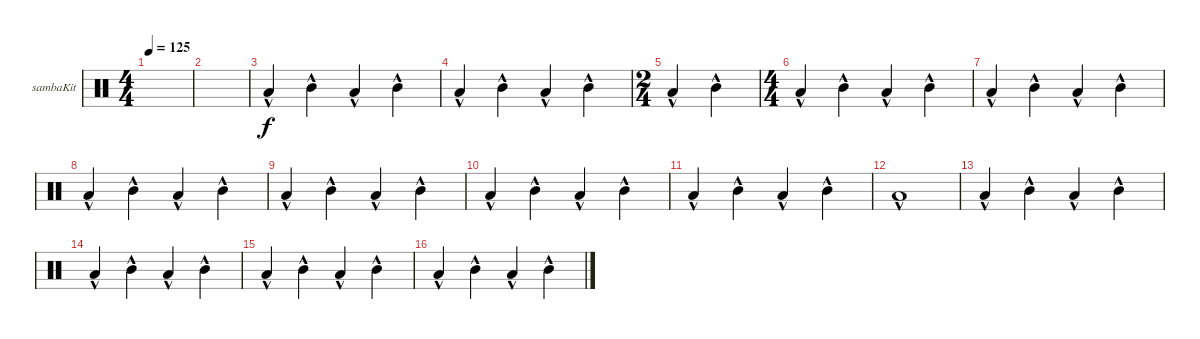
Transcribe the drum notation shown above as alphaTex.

\defaultSystemsLayout 4
\bracketExtendMode groupsimilarinstruments
\firstSystemTrackNameOrientation horizontal
\otherSystemsTrackNameOrientation horizontal
\track ("Kit-Samba" "sambaKit") {instrument percussion}
\staff {score}
\articulation defaults
\ts (4 4)
\tempo 125
\clef neutral
\scale
0.333333
\ks c
|
\scale
0.333333 |
\scale
0.262911 "Low Tom (hit)"{hac}.4 "Mid Tom (hit)"{hac}.4 "Low Tom (hit)"{hac}.4 "Mid Tom (hit)"{hac}.4 |
\scale
0.262911 "Low Tom (hit)"{hac}.4 "Mid Tom (hit)"{hac}.4 "Low Tom (hit)"{hac}.4 "Mid Tom (hit)"{hac}.4 |
\ts (2 4)
\scale
0.474178 "Low Tom (hit)"{hac}.4 "Mid Tom (hit)"{hac}.4 |
\ts (4 4)
\scale
0.474178 "Low Tom (hit)"{hac}.4 "Mid Tom (hit)"{hac}.4 "Low Tom (hit)"{hac}.4 "Mid Tom (hit)"{hac}.4 |
\scale
0.262911 "Low Tom (hit)"{hac}.4 "Mid Tom (hit)"{hac}.4 "Low Tom (hit)"{hac}.4 "Mid Tom (hit)"{hac}.4 |
\scale
0.262911 "Low Tom (hit)"{hac}.4 "Mid Tom (hit)"{hac}.4 "Low Tom (hit)"{hac}.4 "Mid Tom (hit)"{hac}.4 |
\scale
0.333333 "Low Tom (hit)"{hac}.4 "Mid Tom (hit)"{hac}.4 "Low Tom (hit)"{hac}.4 "Mid Tom (hit)"{hac}.4 |
\scale
0.333333 "Low Tom (hit)"{hac}.4 "Mid Tom (hit)"{hac}.4 "Low Tom (hit)"{hac}.4 "Mid Tom (hit)"{hac}.4 |
\scale
0.333333 "Low Tom (hit)"{hac}.4 "Mid Tom (hit)"{hac}.4 "Low Tom (hit)"{hac}.4 "Mid Tom (hit)"{hac}.4 |
\scale
0.333333 "Low Tom (hit)"{hac}.1 |
\scale
0.333333 "Low Tom (hit)"{hac}.4 "Mid Tom (hit)"{hac}.4 "Low Tom (hit)"{hac}.4 "Mid Tom (hit)"{hac}.4 |
\scale
0.333333 "Low Tom (hit)"{hac}.4 "Mid Tom (hit)"{hac}.4 "Low Tom (hit)"{hac}.4 "Mid Tom (hit)"{hac}.4 |
\scale
0.333333 "Low Tom (hit)"{hac}.4 "Mid Tom (hit)"{hac}.4 "Low Tom (hit)"{hac}.4 "Mid Tom (hit)"{hac}.4 |
\scale
0.333333 "Low Tom (hit)"{hac}.4 "Mid Tom (hit)"{hac}.4 "Low Tom (hit)"{hac}.4 "Mid Tom (hit)"{hac}.4
